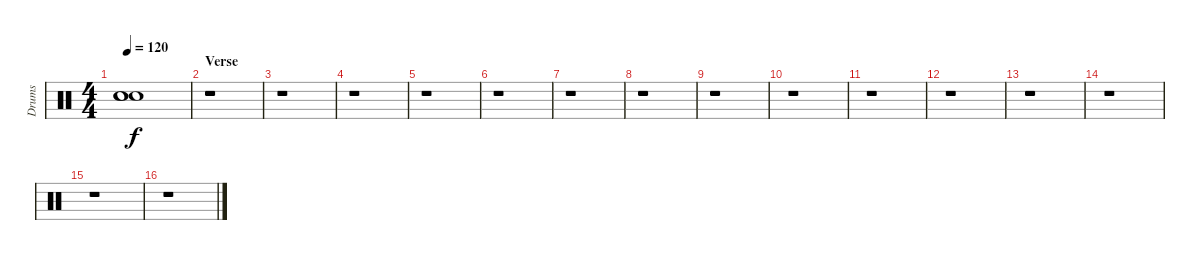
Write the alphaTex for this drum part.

\track ("Drums" "Drums") {instrument percussion}
\staff {score}
\articulation defaults
\ts (4 4)
\tempo 120
\clef neutral
\ks c
("Snare (hit)"{t} "Snare (hit)"{t} "Snare (hit)"{t}).1{dy f} |
\section ("" "Verse")
r.1 |
r.1 |
r.1 |
r.1 |
r.1 |
r.1 |
r.1 |
r.1 |
r.1 |
r.1 |
r.1 |
r.1 |
r.1 |
r.1 |
r.1
